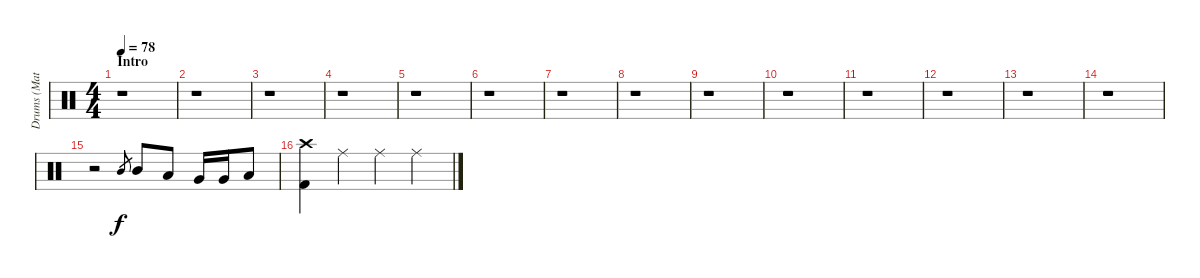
\track ("Drums (Matt)" "Drums (Mat") {instrument percussion}
\staff {score}
\articulation defaults
\ts (4 4)
\section ("" "Intro")
\tempo 78
\clef neutral
\ks c
r.1{dy f} |
r.1 |
r.1 |
r.1 |
r.1 |
r.1 |
r.1 |
r.1 |
r.1 |
r.1 |
r.1 |
r.1 |
r.1 |
r.1 |
r.2 "Mid Tom (hit)".8{gr} "Mid Tom (hit)".8 "Low Tom (hit)".8 "Very Low Tom (hit)".16 "Very Low Tom (hit)".16 "Low Floor Tom (hit)".8 |
("Crash high (hit)" "Kick (hit) 2").4 "Ride (middle)".4 "Ride (middle)".4 "Ride (middle)".4
